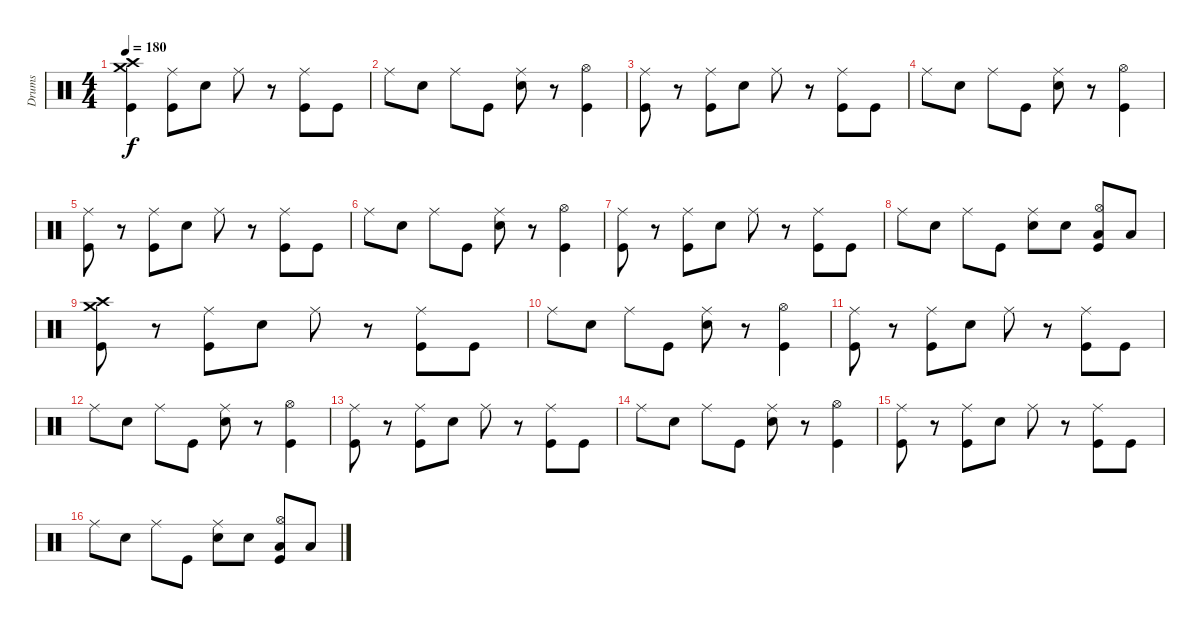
\track ("Drums" "Drums") {instrument percussion}
\staff {score}
\articulation defaults
\ts (4 4)
\tempo 180
\clef neutral
\ks c
("Crash medium (hit)" "Crash high (hit)" "Kick (hit)").4{dy f volume 13} ("Ride (middle)" "Kick (hit)").8 "Snare (hit) 2".8 "Ride (middle)".8 r.8 ("Ride (middle)" "Kick (hit)").8 "Kick (hit)".8 |
"Ride (middle)".8 "Snare (hit) 2".8 "Ride (middle)".8 "Kick (hit)".8 ("Ride (middle)" "Snare (hit) 2").8 r.8 ("Hi-Hat (open)" "Kick (hit)").4 |
("Ride (middle)" "Kick (hit)").8 r.8 ("Ride (middle)" "Kick (hit)").8 "Snare (hit) 2".8 "Ride (middle)".8 r.8 ("Ride (middle)" "Kick (hit)").8 "Kick (hit)".8 |
"Ride (middle)".8 "Snare (hit) 2".8 "Ride (middle)".8 "Kick (hit)".8 ("Ride (middle)" "Snare (hit) 2").8 r.8 ("Hi-Hat (open)" "Kick (hit)").4 |
("Ride (middle)" "Kick (hit)").8 r.8 ("Ride (middle)" "Kick (hit)").8 "Snare (hit) 2".8 "Ride (middle)".8 r.8 ("Ride (middle)" "Kick (hit)").8 "Kick (hit)".8 |
"Ride (middle)".8 "Snare (hit) 2".8 "Ride (middle)".8 "Kick (hit)".8 ("Ride (middle)" "Snare (hit) 2").8 r.8 ("Hi-Hat (open)" "Kick (hit)").4 |
("Ride (middle)" "Kick (hit)").8 r.8 ("Ride (middle)" "Kick (hit)").8 "Snare (hit) 2".8 "Ride (middle)".8 r.8 ("Ride (middle)" "Kick (hit)").8 "Kick (hit)".8 |
"Ride (middle)".8 "Snare (hit) 2".8 "Ride (middle)".8 "Kick (hit)".8 ("Ride (middle)" "Snare (hit) 2").8 "Snare (hit) 2".8 ("Low Tom (hit)" "Hi-Hat (open)" "Kick (hit)").8 "Low Tom (hit)".8 |
("Crash medium (hit)" "Crash high (hit)" "Kick (hit)").8 r.8 ("Ride (middle)" "Kick (hit)").8 "Snare (hit) 2".8 "Ride (middle)".8 r.8 ("Ride (middle)" "Kick (hit)").8 "Kick (hit)".8 |
"Ride (middle)".8 "Snare (hit) 2".8 "Ride (middle)".8 "Kick (hit)".8 ("Ride (middle)" "Snare (hit) 2").8 r.8 ("Hi-Hat (open)" "Kick (hit)").4 |
("Ride (middle)" "Kick (hit)").8 r.8 ("Ride (middle)" "Kick (hit)").8 "Snare (hit) 2".8 "Ride (middle)".8 r.8 ("Ride (middle)" "Kick (hit)").8 "Kick (hit)".8 |
"Ride (middle)".8 "Snare (hit) 2".8 "Ride (middle)".8 "Kick (hit)".8 ("Ride (middle)" "Snare (hit) 2").8 r.8 ("Hi-Hat (open)" "Kick (hit)").4 |
("Ride (middle)" "Kick (hit)").8 r.8 ("Ride (middle)" "Kick (hit)").8 "Snare (hit) 2".8 "Ride (middle)".8 r.8 ("Ride (middle)" "Kick (hit)").8 "Kick (hit)".8 |
"Ride (middle)".8 "Snare (hit) 2".8 "Ride (middle)".8 "Kick (hit)".8 ("Ride (middle)" "Snare (hit) 2").8 r.8 ("Hi-Hat (open)" "Kick (hit)").4 |
("Ride (middle)" "Kick (hit)").8 r.8 ("Ride (middle)" "Kick (hit)").8 "Snare (hit) 2".8 "Ride (middle)".8 r.8 ("Ride (middle)" "Kick (hit)").8 "Kick (hit)".8 |
"Ride (middle)".8 "Snare (hit) 2".8 "Ride (middle)".8 "Kick (hit)".8 ("Ride (middle)" "Snare (hit) 2").8 "Snare (hit) 2".8 ("Low Tom (hit)" "Hi-Hat (open)" "Kick (hit)").8 "Low Tom (hit)".8
